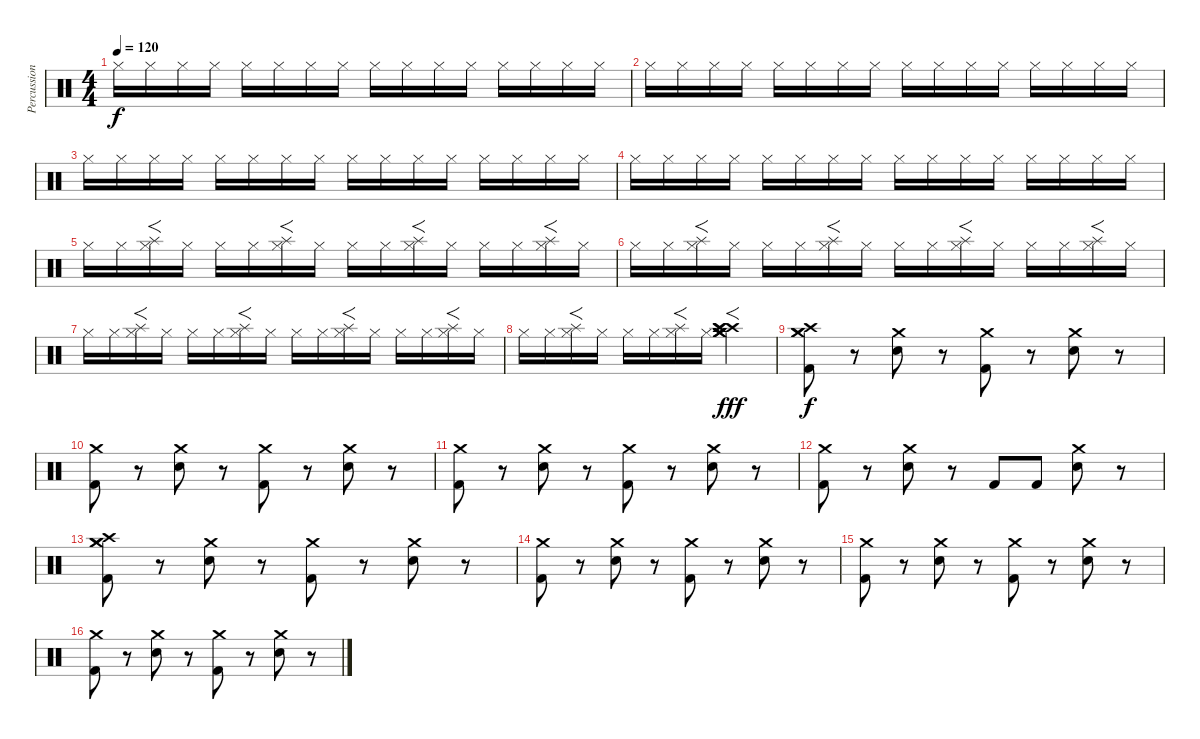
\track ("Percussion" "Percussion") {instrument percussion}
\staff {score}
\articulation defaults
\ts (4 4)
\tempo 120
\clef neutral
\ks c "Hi-Hat (closed)".16{dy f} "Hi-Hat (closed)".16 "Hi-Hat (closed)".16 "Hi-Hat (closed)".16 "Hi-Hat (closed)".16 "Hi-Hat (closed)".16 "Hi-Hat (closed)".16 "Hi-Hat (closed)".16 "Hi-Hat (closed)".16 "Hi-Hat (closed)".16 "Hi-Hat (closed)".16 "Hi-Hat (closed)".16 "Hi-Hat (closed)".16 "Hi-Hat (closed)".16 "Hi-Hat (closed)".16 "Hi-Hat (closed)".16
|
"Hi-Hat (closed)".16 "Hi-Hat (closed)".16 "Hi-Hat (closed)".16 "Hi-Hat (closed)".16 "Hi-Hat (closed)".16 "Hi-Hat (closed)".16 "Hi-Hat (closed)".16 "Hi-Hat (closed)".16 "Hi-Hat (closed)".16 "Hi-Hat (closed)".16 "Hi-Hat (closed)".16 "Hi-Hat (closed)".16 "Hi-Hat (closed)".16 "Hi-Hat (closed)".16 "Hi-Hat (closed)".16 "Hi-Hat (closed)".16 |
"Hi-Hat (closed)".16 "Hi-Hat (closed)".16 "Hi-Hat (closed)".16 "Hi-Hat (closed)".16 "Hi-Hat (closed)".16 "Hi-Hat (closed)".16 "Hi-Hat (closed)".16 "Hi-Hat (closed)".16 "Hi-Hat (closed)".16 "Hi-Hat (closed)".16 "Hi-Hat (closed)".16 "Hi-Hat (closed)".16 "Hi-Hat (closed)".16 "Hi-Hat (closed)".16 "Hi-Hat (closed)".16 "Hi-Hat (closed)".16 |
"Hi-Hat (closed)".16 "Hi-Hat (closed)".16 "Hi-Hat (closed)".16 "Hi-Hat (closed)".16 "Hi-Hat (closed)".16 "Hi-Hat (closed)".16 "Hi-Hat (closed)".16 "Hi-Hat (closed)".16 "Hi-Hat (closed)".16 "Hi-Hat (closed)".16 "Hi-Hat (closed)".16 "Hi-Hat (closed)".16 "Hi-Hat (closed)".16 "Hi-Hat (closed)".16 "Hi-Hat (closed)".16 "Hi-Hat (closed)".16 |
"Hi-Hat (closed)".16 "Hi-Hat (closed)".16 ("Splash (hit)" "Hi-Hat (closed)").16{f} "Hi-Hat (closed)".16 "Hi-Hat (closed)".16 "Hi-Hat (closed)".16 ("Splash (hit)" "Hi-Hat (closed)").16{f} "Hi-Hat (closed)".16 "Hi-Hat (closed)".16 "Hi-Hat (closed)".16 ("Splash (hit)" "Hi-Hat (closed)").16{f} "Hi-Hat (closed)".16 "Hi-Hat (closed)".16 "Hi-Hat (closed)".16 ("Splash (hit)" "Hi-Hat (closed)").16{f} "Hi-Hat (closed)".16 |
"Hi-Hat (closed)".16 "Hi-Hat (closed)".16 ("Splash (hit)" "Hi-Hat (closed)").16{f} "Hi-Hat (closed)".16 "Hi-Hat (closed)".16 "Hi-Hat (closed)".16 ("Splash (hit)" "Hi-Hat (closed)").16{f} "Hi-Hat (closed)".16 "Hi-Hat (closed)".16 "Hi-Hat (closed)".16 ("Splash (hit)" "Hi-Hat (closed)").16{f} "Hi-Hat (closed)".16 "Hi-Hat (closed)".16 "Hi-Hat (closed)".16 ("Splash (hit)" "Hi-Hat (closed)").16{f} "Hi-Hat (closed)".16 |
"Hi-Hat (closed)".16 "Hi-Hat (closed)".16 ("Splash (hit)" "Hi-Hat (closed)").16{f} "Hi-Hat (closed)".16 "Hi-Hat (closed)".16 "Hi-Hat (closed)".16 ("Splash (hit)" "Hi-Hat (closed)").16{f} "Hi-Hat (closed)".16 "Hi-Hat (closed)".16 "Hi-Hat (closed)".16 ("Splash (hit)" "Hi-Hat (closed)").16{f} "Hi-Hat (closed)".16 "Hi-Hat (closed)".16 "Hi-Hat (closed)".16 ("Splash (hit)" "Hi-Hat (closed)").16{f} "Hi-Hat (closed)".16 |
"Hi-Hat (closed)".16 "Hi-Hat (closed)".16 ("Splash (hit)" "Hi-Hat (closed)").16{f} "Hi-Hat (closed)".16 "Hi-Hat (closed)".16 "Hi-Hat (closed)".16 ("Splash (hit)" "Hi-Hat (closed)").16{f} "Hi-Hat (closed)".16 ("Crash medium (hit)" "Crash high (hit)" "Crash medium (hit)" "Crash high (hit)" "Crash medium (hit)" "Crash high (hit)").2{f dy fff} |
("Crash high (hit)" "Crash medium (hit)" "Kick (hit) 2" "Crash medium (hit)").8{dy f} r.8 ("Electric Snare (hit)" "Crash medium (hit)").8 r.8 ("Kick (hit) 2" "Crash medium (hit)").8 r.8 ("Electric Snare (hit)" "Crash medium (hit)").8 r.8 |
("Kick (hit) 2" "Crash medium (hit)").8 r.8 ("Electric Snare (hit)" "Crash medium (hit)").8 r.8 ("Kick (hit) 2" "Crash medium (hit)").8 r.8 ("Electric Snare (hit)" "Crash medium (hit)").8 r.8 |
("Kick (hit) 2" "Crash medium (hit)").8 r.8 ("Electric Snare (hit)" "Crash medium (hit)").8 r.8 ("Kick (hit) 2" "Crash medium (hit)").8 r.8 ("Electric Snare (hit)" "Crash medium (hit)").8 r.8 |
("Kick (hit) 2" "Crash medium (hit)").8 r.8 ("Electric Snare (hit)" "Crash medium (hit)").8 r.8 "Kick (hit) 2".8 "Kick (hit) 2".8 ("Electric Snare (hit)" "Crash medium (hit)").8 r.8 |
("Crash high (hit)" "Crash medium (hit)" "Kick (hit) 2" "Crash medium (hit)").8 r.8 ("Electric Snare (hit)" "Crash medium (hit)").8 r.8 ("Kick (hit) 2" "Crash medium (hit)").8 r.8 ("Electric Snare (hit)" "Crash medium (hit)").8 r.8 |
("Kick (hit) 2" "Crash medium (hit)").8 r.8 ("Electric Snare (hit)" "Crash medium (hit)").8 r.8 ("Kick (hit) 2" "Crash medium (hit)").8 r.8 ("Electric Snare (hit)" "Crash medium (hit)").8 r.8 |
("Kick (hit) 2" "Crash medium (hit)").8 r.8 ("Electric Snare (hit)" "Crash medium (hit)").8 r.8 ("Kick (hit) 2" "Crash medium (hit)").8 r.8 ("Electric Snare (hit)" "Crash medium (hit)").8 r.8 |
("Kick (hit) 2" "Crash medium (hit)").8 r.8 ("Electric Snare (hit)" "Crash medium (hit)").8 r.8 ("Kick (hit) 2" "Crash medium (hit)").8 r.8 ("Electric Snare (hit)" "Crash medium (hit)").8 r.8
